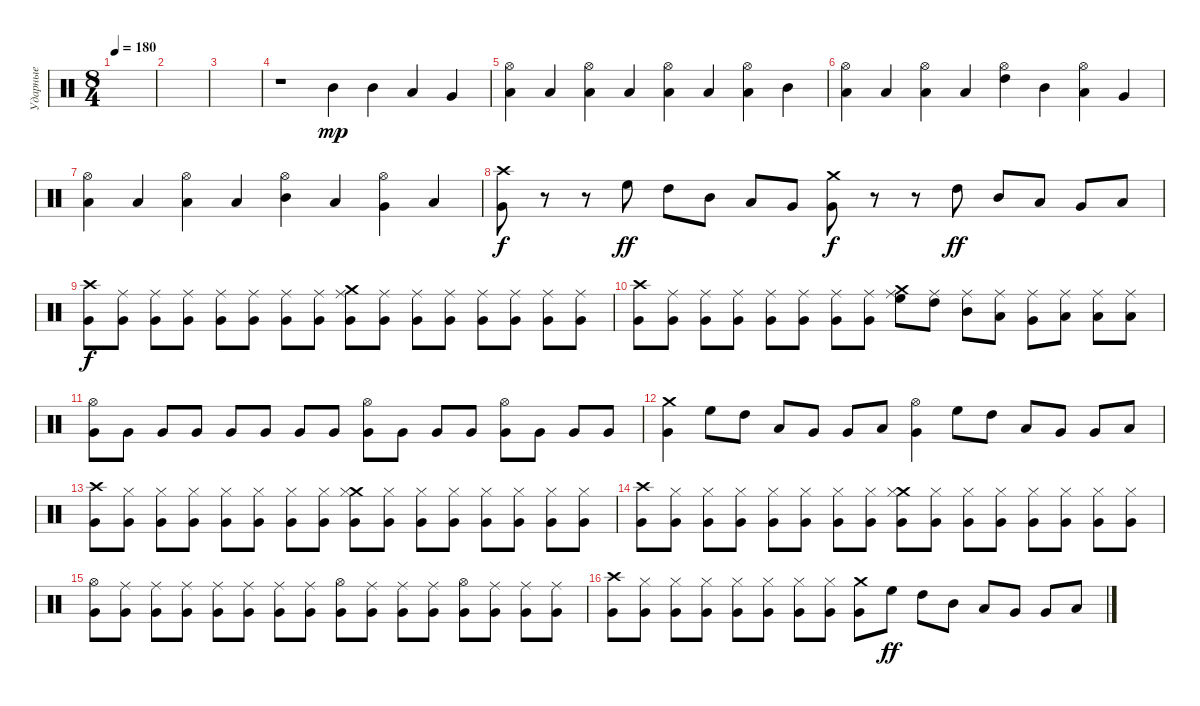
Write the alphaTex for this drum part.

\track ("Ударные" "Ударные") {instrument percussion}
\staff {score}
\articulation defaults
\ts (8 4)
\tempo 180
\clef neutral
\ks c
|
|
|
r.1{volume 3} "Mid Tom (hit)".4{dy mp} "Mid Tom (hit)".4 "Low Tom (hit)".4 "Very Low Tom (hit)".4 |
("Hi-Hat (open)" "Low Tom (hit)").4 "Low Tom (hit)".4 ("Hi-Hat (open)" "Low Tom (hit)").4 "Low Tom (hit)".4 ("Hi-Hat (open)" "Low Tom (hit)").4 "Low Tom (hit)".4 ("Hi-Hat (open)" "Low Tom (hit)").4 "Mid Tom (hit)".4 |
("Hi-Hat (open)" "Low Tom (hit)").4 "Low Tom (hit)".4 ("Hi-Hat (open)" "Low Tom (hit)").4 "Low Tom (hit)".4 ("Hi-Hat (open)" "High Tom (hit)").4 "Mid Tom (hit)".4 ("Hi-Hat (open)" "Low Tom (hit)").4 "Very Low Tom (hit)".4 |
("Hi-Hat (open)" "Low Tom (hit)").4 "Low Tom (hit)".4 ("Hi-Hat (open)" "Low Tom (hit)").4 "Low Tom (hit)".4 ("Hi-Hat (open)" "Mid Tom (hit)").4 "Low Tom (hit)".4 ("Hi-Hat (open)" "Very Low Tom (hit)").4 "Low Floor Tom (hit)".4 |
("Crash high (hit)" "Very Low Tom (hit)").8{dy f volume 8} r.8 r.8 "High Floor Tom (hit)".8{dy ff} "High Tom (hit)".8 "Mid Tom (hit)".8 "Low Tom (hit)".8 "Very Low Tom (hit)".8 ("Crash medium (hit)" "Very Low Tom (hit)").8{dy f} r.8 r.8 "High Tom (hit)".8{dy ff} "Mid Tom (hit)".8 "Low Tom (hit)".8 "Very Low Tom (hit)".8 "Low Floor Tom (hit)".8 |
("Crash high (hit)" "Very Low Tom (hit)").8{dy f} ("Ride (middle)" "Very Low Tom (hit)").8 ("Ride (middle)" "Very Low Tom (hit)").8 ("Ride (middle)" "Very Low Tom (hit)").8 ("Ride (middle)" "Very Low Tom (hit)").8 ("Ride (middle)" "Very Low Tom (hit)").8 ("Ride (middle)" "Very Low Tom (hit)").8 ("Ride (middle)" "Very Low Tom (hit)").8 ("Crash medium (hit)" "Ride (middle)" "Very Low Tom (hit)").8 ("Ride (middle)" "Very Low Tom (hit)").8 ("Ride (middle)" "Very Low Tom (hit)").8 ("Ride (middle)" "Very Low Tom (hit)").8 ("Ride (middle)" "Very Low Tom (hit)").8 ("Ride (middle)" "Very Low Tom (hit)").8 ("Ride (middle)" "Very Low Tom (hit)").8 ("Ride (middle)" "Very Low Tom (hit)").8 |
("Crash high (hit)" "Very Low Tom (hit)").8 ("Ride (middle)" "Very Low Tom (hit)").8 ("Ride (middle)" "Very Low Tom (hit)").8 ("Ride (middle)" "Very Low Tom (hit)").8 ("Ride (middle)" "Very Low Tom (hit)").8 ("Ride (middle)" "Very Low Tom (hit)").8 ("Ride (middle)" "Very Low Tom (hit)").8 ("Ride (middle)" "Very Low Tom (hit)").8 ("Crash medium (hit)" "Ride (middle)" "High Floor Tom (hit)").8 ("Ride (middle)" "High Tom (hit)").8 ("Ride (middle)" "Mid Tom (hit)").8 ("Ride (middle)" "Low Tom (hit)").8 ("Ride (middle)" "Very Low Tom (hit)").8 ("Ride (middle)" "Low Floor Tom (hit)").8 ("Ride (middle)" "Low Floor Tom (hit)").8 ("Ride (middle)" "Low Floor Tom (hit)").8 |
("Hi-Hat (open)" "Very Low Tom (hit)").8 "Very Low Tom (hit)".8 "Very Low Tom (hit)".8 "Very Low Tom (hit)".8 "Very Low Tom (hit)".8 "Very Low Tom (hit)".8 "Very Low Tom (hit)".8 "Very Low Tom (hit)".8 ("Hi-Hat (open)" "Very Low Tom (hit)").8 "Very Low Tom (hit)".8 "Very Low Tom (hit)".8 "Very Low Tom (hit)".8 ("Hi-Hat (open)" "Very Low Tom (hit)").8 "Very Low Tom (hit)".8 "Very Low Tom (hit)".8 "Very Low Tom (hit)".8 |
("Crash medium (hit)" "Very Low Tom (hit)").4 "High Floor Tom (hit)".8 "High Tom (hit)".8 "Low Tom (hit)".8 "Very Low Tom (hit)".8 "Very Low Tom (hit)".8 "Low Floor Tom (hit)".8 ("Hi-Hat (open)" "Very Low Tom (hit)").4 "High Floor Tom (hit)".8 "High Tom (hit)".8 "Low Tom (hit)".8 "Very Low Tom (hit)".8 "Very Low Tom (hit)".8 "Low Floor Tom (hit)".8 |
("Crash high (hit)" "Very Low Tom (hit)").8{volume 11} ("Hi-Hat (closed)" "Very Low Tom (hit)").8 ("Hi-Hat (closed)" "Very Low Tom (hit)").8 ("Hi-Hat (closed)" "Very Low Tom (hit)").8 ("Hi-Hat (closed)" "Very Low Tom (hit)").8 ("Hi-Hat (closed)" "Very Low Tom (hit)").8 ("Hi-Hat (closed)" "Very Low Tom (hit)").8 ("Hi-Hat (closed)" "Very Low Tom (hit)").8 ("Crash medium (hit)" "Hi-Hat (closed)" "Very Low Tom (hit)").8 ("Hi-Hat (closed)" "Very Low Tom (hit)").8 ("Hi-Hat (closed)" "Very Low Tom (hit)").8 ("Hi-Hat (closed)" "Very Low Tom (hit)").8 ("Hi-Hat (closed)" "Very Low Tom (hit)").8 ("Hi-Hat (closed)" "Very Low Tom (hit)").8 ("Hi-Hat (closed)" "Very Low Tom (hit)").8 ("Hi-Hat (closed)" "Very Low Tom (hit)").8 |
("Crash high (hit)" "Very Low Tom (hit)").8 ("Hi-Hat (closed)" "Very Low Tom (hit)").8 ("Hi-Hat (closed)" "Very Low Tom (hit)").8 ("Hi-Hat (closed)" "Very Low Tom (hit)").8 ("Hi-Hat (closed)" "Very Low Tom (hit)").8 ("Hi-Hat (closed)" "Very Low Tom (hit)").8 ("Hi-Hat (closed)" "Very Low Tom (hit)").8 ("Hi-Hat (closed)" "Very Low Tom (hit)").8 ("Crash medium (hit)" "Hi-Hat (closed)" "Very Low Tom (hit)").8 ("Hi-Hat (closed)" "Very Low Tom (hit)").8 ("Hi-Hat (closed)" "Very Low Tom (hit)").8 ("Hi-Hat (closed)" "Very Low Tom (hit)").8 ("Hi-Hat (closed)" "Very Low Tom (hit)").8 ("Hi-Hat (closed)" "Very Low Tom (hit)").8 ("Hi-Hat (closed)" "Very Low Tom (hit)").8 ("Hi-Hat (closed)" "Very Low Tom (hit)").8 |
("Hi-Hat (open)" "Very Low Tom (hit)").8 ("Ride (middle)" "Very Low Tom (hit)").8 ("Ride (middle)" "Very Low Tom (hit)").8 ("Ride (middle)" "Very Low Tom (hit)").8 ("Ride (middle)" "Very Low Tom (hit)").8 ("Ride (middle)" "Very Low Tom (hit)").8 ("Ride (middle)" "Very Low Tom (hit)").8 ("Ride (middle)" "Very Low Tom (hit)").8 ("Hi-Hat (open)" "Very Low Tom (hit)").8 ("Ride (middle)" "Very Low Tom (hit)").8 ("Ride (middle)" "Very Low Tom (hit)").8 ("Ride (middle)" "Very Low Tom (hit)").8 ("Hi-Hat (open)" "Very Low Tom (hit)").8 ("Ride (middle)" "Very Low Tom (hit)").8 ("Ride (middle)" "Very Low Tom (hit)").8 ("Ride (middle)" "Very Low Tom (hit)").8 |
("Crash high (hit)" "Very Low Tom (hit)").8 ("Hi-Hat (closed)" "Very Low Tom (hit)").8 ("Hi-Hat (closed)" "Very Low Tom (hit)").8 ("Hi-Hat (closed)" "Very Low Tom (hit)").8 ("Hi-Hat (closed)" "Very Low Tom (hit)").8 ("Hi-Hat (closed)" "Very Low Tom (hit)").8 ("Hi-Hat (closed)" "Very Low Tom (hit)").8 ("Hi-Hat (closed)" "Very Low Tom (hit)").8 ("Crash medium (hit)" "Very Low Tom (hit)").8 "High Floor Tom (hit)".8{dy ff} "High Tom (hit)".8 "Mid Tom (hit)".8 "Low Tom (hit)".8 "Very Low Tom (hit)".8 "Very Low Tom (hit)".8 "Low Floor Tom (hit)".8
